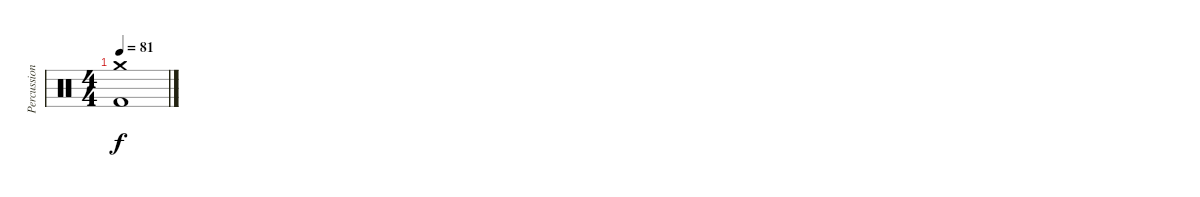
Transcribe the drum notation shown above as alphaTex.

\track ("Percussion" "Percussion") {instrument percussion}
\staff {score}
\articulation defaults
\ts (4 4)
\tempo 81
\clef neutral
\ks c
("Crash medium (hit)" "Kick (hit) 2").1{dy f}
